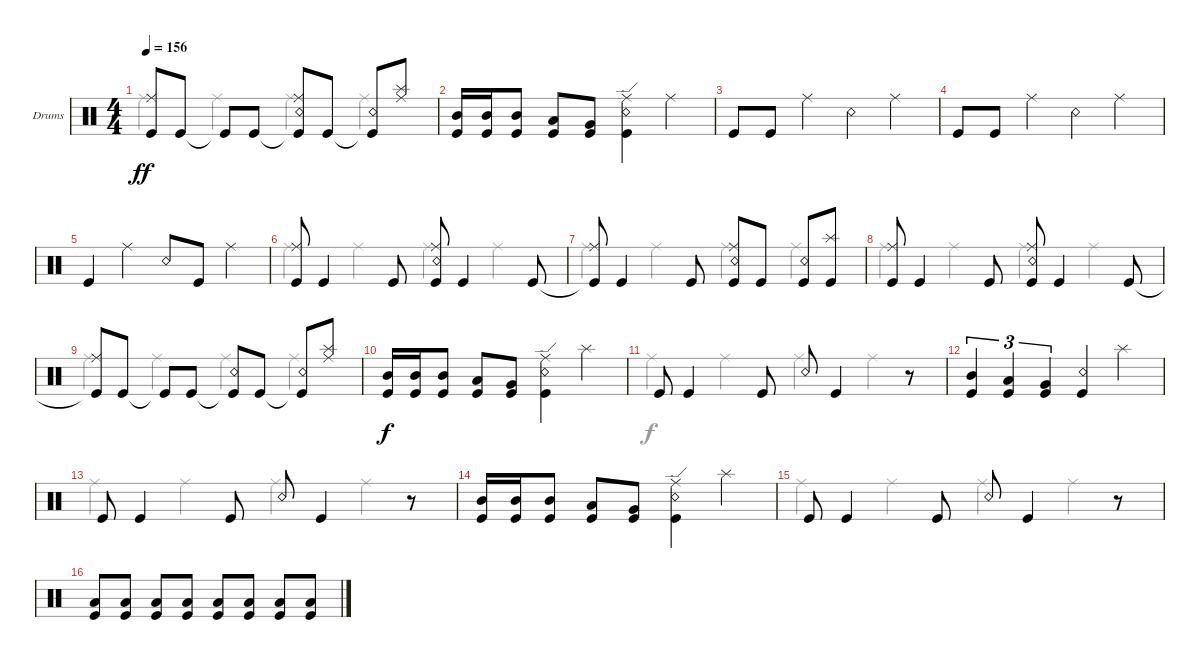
\defaultSystemsLayout 4
\bracketExtendMode groupsimilarinstruments
\firstSystemTrackNameOrientation horizontal
\otherSystemsTrackNameOrientation horizontal
\track ("Drumkit" "Drums") {instrument percussion}
\staff {score}
\articulation defaults
\voice
\ts (4 4)
\tempo 156
\clef neutral
\ks c
("Kick (hit)"{t} "Ride (middle)").8{dy ff} "Kick (hit)".8 "Kick (hit)"{t}.8 "Kick (hit)".8 ("Kick (hit)"{t} "Snare (rim shot)" "Ride (middle)").8 "Kick (hit)".8 ("Kick (hit)"{t} "Snare (rim shot)").8 ("Ride (middle)" "Splash (hit)").8 |
("Kick (hit)" "Mid Tom (hit)").16 ("Mid Tom (hit)" "Kick (hit)").16 ("Kick (hit)" "Mid Tom (hit)").8 ("Kick (hit)" "Low Tom (hit)").8 ("Kick (hit)" "Very Low Tom (hit)").8 ("Snare (rim shot)" "Ride (edge)" "Kick (hit)").4 "Ride (middle)".4 |
"Kick (hit)".8 "Kick (hit)".8 "Ride (middle)".4 "Snare (rim shot)".4 "Ride (middle)".4 |
"Kick (hit)".8 "Kick (hit)".8 "Ride (middle)".4 "Snare (rim shot)".4 "Ride (middle)".4 |
"Kick (hit)".4 "Ride (middle)".4 "Snare (rim shot)".8 "Kick (hit)".8 "Ride (middle)".4 |
("Kick (hit)" "Ride (middle)").8 "Kick (hit)".4 "Kick (hit)".8 ("Kick (hit)" "Snare (rim shot)" "Ride (middle)").8 "Kick (hit)".4 "Kick (hit)".8 |
("Kick (hit)"{t} "Ride (middle)").8 "Kick (hit)".4 "Kick (hit)".8 ("Kick (hit)" "Snare (rim shot)" "Ride (middle)").8 "Kick (hit)".8 ("Snare (rim shot)" "Kick (hit)").8 ("Splash (hit)" "Kick (hit)").8 |
("Kick (hit)" "Ride (middle)").8 "Kick (hit)".4 "Kick (hit)".8 ("Kick (hit)" "Snare (rim shot)" "Ride (middle)").8 "Kick (hit)".4 "Kick (hit)".8 |
("Kick (hit)"{t} "Ride (middle)").8 "Kick (hit)".8 "Kick (hit)"{t}.8 "Kick (hit)".8 ("Kick (hit)"{t} "Snare (rim shot)").8 "Kick (hit)".8 ("Kick (hit)"{t} "Snare (rim shot)").8 ("Ride (middle)" "Splash (hit)").8 |
("Kick (hit)" "Mid Tom (hit)").16{dy f} ("Mid Tom (hit)" "Kick (hit)").16 ("Kick (hit)" "Mid Tom (hit)").8 ("Kick (hit)" "Low Tom (hit)").8 ("Kick (hit)" "Very Low Tom (hit)").8 ("Snare (rim shot)" "Ride (edge)" "Kick (hit)").4 "Splash (hit)".4 |
"Kick (hit)".8 "Kick (hit)".4 "Kick (hit)".8 "Snare (rim shot)".8 "Kick (hit)".4 r.8 |
("Kick (hit)" "Mid Tom (hit)").4{tu (3 2)} ("Kick (hit)" "Low Tom (hit)").4{tu (3 2)} ("Kick (hit)" "Very Low Tom (hit)").4{tu (3 2)} ("Kick (hit)" "Snare (rim shot)").4 "Splash (hit)".4 |
"Kick (hit)".8 "Kick (hit)".4 "Kick (hit)".8 "Snare (rim shot)".8 "Kick (hit)".4 r.8 |
("Kick (hit)" "Mid Tom (hit)").16 ("Mid Tom (hit)" "Kick (hit)").16 ("Kick (hit)" "Mid Tom (hit)").8 ("Kick (hit)" "Low Tom (hit)").8 ("Kick (hit)" "Very Low Tom (hit)").8 ("Snare (rim shot)" "Ride (edge)" "Kick (hit)").4 "Splash (hit)".4 |
"Kick (hit)".8 "Kick (hit)".4 "Kick (hit)".8 "Snare (rim shot)".8 "Kick (hit)".4 r.8 |
("Kick (hit)" "Low Tom (hit)").8 ("Kick (hit)" "Low Tom (hit)").8 ("Kick (hit)" "Low Tom (hit)").8 ("Kick (hit)" "Low Tom (hit)").8 ("Kick (hit)" "Low Tom (hit)").8 ("Kick (hit)" "Low Tom (hit)").8 ("Kick (hit)" "Low Tom (hit)").8 ("Kick (hit)" "Low Tom (hit)").8
\voice
\clef neutral
\ottava regular
\simile none
\ks c "Ride (middle)".4{dy ff} "Ride (middle)".4 "Ride (middle)".4 "Ride (middle)".4
|
|
|
|
|
"Ride (middle)".4 "Ride (middle)".4 "Ride (middle)".4 "Ride (middle)".4 |
"Ride (middle)".4 "Ride (middle)".4 "Ride (middle)".4 "Ride (middle)".4 |
"Ride (middle)".4 "Ride (middle)".4 "Ride (middle)".4 "Ride (middle)".4 |
"Ride (middle)".4 "Ride (middle)".4 "Ride (middle)".4 "Ride (middle)".4 |
|
"Ride (middle)".4{dy f} "Ride (middle)".4 "Ride (middle)".4 "Ride (middle)".4 |
|
"Ride (middle)".4 "Ride (middle)".4 "Ride (middle)".4 "Ride (middle)".4 |
|
"Ride (middle)".4 "Ride (middle)".4 "Ride (middle)".4 "Ride (middle)".4 |
